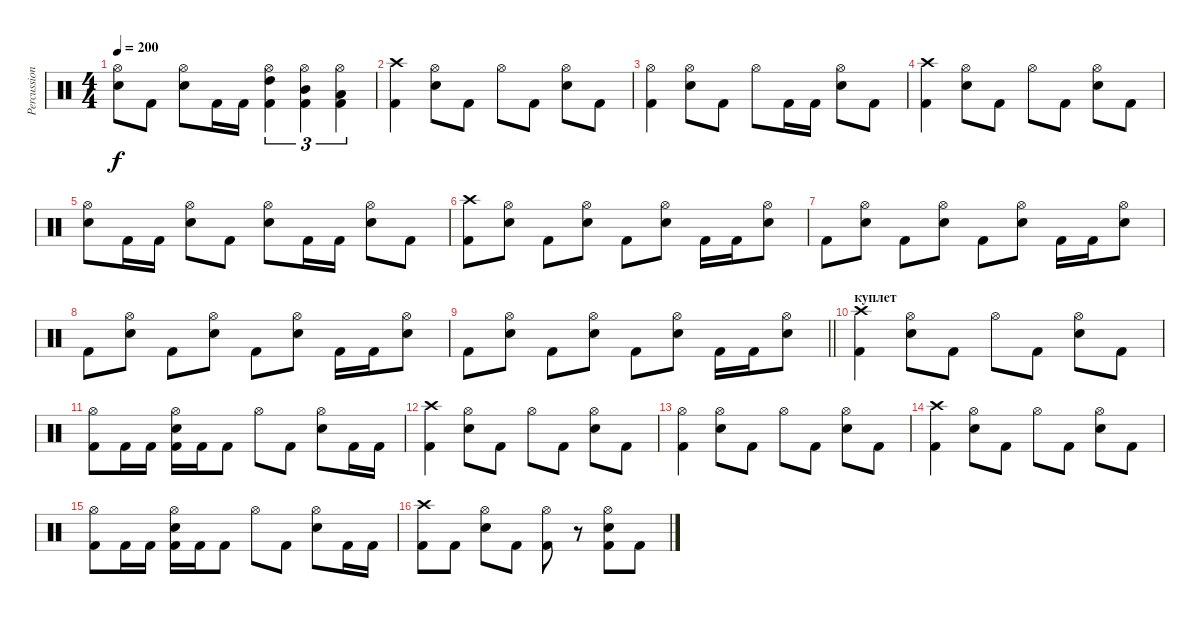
\track ("Percussion" "Percussion") {instrument percussion}
\staff {score}
\articulation defaults
\ts (4 4)
\tempo 200
\clef neutral
\ks c
("Hi-Hat (open)" "Snare (hit) 2").8{dy f} "Kick (hit) 2".8 ("Hi-Hat (open)" "Snare (hit) 2").8 "Kick (hit) 2".16 "Kick (hit) 2".16 ("Hi-Hat (open)" "High Tom (hit)" "Kick (hit) 2").4{tu (3 2)} ("Hi-Hat (open)" "Mid Tom (hit)" "Kick (hit) 2").4{tu (3 2)} ("Hi-Hat (open)" "Low Tom (hit)" "Kick (hit) 2").4{tu (3 2)} |
("Crash high (hit)" "Kick (hit) 2").4 ("Hi-Hat (open)" "Snare (hit) 2").8 "Kick (hit) 2".8 "Hi-Hat (open)".8 "Kick (hit) 2".8 ("Hi-Hat (open)" "Snare (hit) 2").8 "Kick (hit) 2".8 |
("Hi-Hat (open)" "Kick (hit) 2").4 ("Hi-Hat (open)" "Snare (hit) 2").8 "Kick (hit) 2".8 "Hi-Hat (open)".8 "Kick (hit) 2".16 "Kick (hit) 2".16 ("Hi-Hat (open)" "Snare (hit) 2").8 "Kick (hit) 2".8 |
("Crash high (hit)" "Kick (hit) 2").4 ("Hi-Hat (open)" "Snare (hit) 2").8 "Kick (hit) 2".8 "Hi-Hat (open)".8 "Kick (hit) 2".8 ("Hi-Hat (open)" "Snare (hit) 2").8 "Kick (hit) 2".8 |
("Hi-Hat (open)" "Snare (hit) 2").8 "Kick (hit) 2".16 "Kick (hit) 2".16 ("Hi-Hat (open)" "Snare (hit) 2").8 "Kick (hit) 2".8 ("Hi-Hat (open)" "Snare (hit) 2").8 "Kick (hit) 2".16 "Kick (hit) 2".16 ("Hi-Hat (open)" "Snare (hit) 2").8 "Kick (hit) 2".8 |
("Crash high (hit)" "Kick (hit) 2").8 ("Hi-Hat (open)" "Snare (hit) 2").8 "Kick (hit) 2".8 ("Hi-Hat (open)" "Snare (hit) 2").8 "Kick (hit) 2".8 ("Hi-Hat (open)" "Snare (hit) 2").8 "Kick (hit) 2".16 "Kick (hit) 2".16 ("Hi-Hat (open)" "Snare (hit) 2").8 |
"Kick (hit) 2".8 ("Hi-Hat (open)" "Snare (hit) 2").8 "Kick (hit) 2".8 ("Hi-Hat (open)" "Snare (hit) 2").8 "Kick (hit) 2".8 ("Hi-Hat (open)" "Snare (hit) 2").8 "Kick (hit) 2".16 "Kick (hit) 2".16 ("Hi-Hat (open)" "Snare (hit) 2").8 |
"Kick (hit) 2".8 ("Hi-Hat (open)" "Snare (hit) 2").8 "Kick (hit) 2".8 ("Hi-Hat (open)" "Snare (hit) 2").8 "Kick (hit) 2".8 ("Hi-Hat (open)" "Snare (hit) 2").8 "Kick (hit) 2".16 "Kick (hit) 2".16 ("Hi-Hat (open)" "Snare (hit) 2").8 |
\barLineRight lightlight "Kick (hit) 2".8
("Hi-Hat (open)" "Snare (hit) 2").8 "Kick (hit) 2".8 ("Hi-Hat (open)" "Snare (hit) 2").8 "Kick (hit) 2".8 ("Hi-Hat (open)" "Snare (hit) 2").8 "Kick (hit) 2".16 "Kick (hit) 2".16 ("Hi-Hat (open)" "Snare (hit) 2").8 |
\section ("" "куплет")
("Crash high (hit)" "Kick (hit) 2").4 ("Hi-Hat (open)" "Snare (hit) 2").8 "Kick (hit) 2".8 "Hi-Hat (open)".8 "Kick (hit) 2".8 ("Hi-Hat (open)" "Snare (hit) 2").8 "Kick (hit) 2".8 |
("Hi-Hat (open)" "Kick (hit) 2").8 "Kick (hit) 2".16 "Kick (hit) 2".16 ("Hi-Hat (open)" "Snare (hit) 2" "Kick (hit) 2").16 "Kick (hit) 2".16 "Kick (hit) 2".8 "Hi-Hat (open)".8 "Kick (hit) 2".8 ("Hi-Hat (open)" "Snare (hit) 2").8 "Kick (hit) 2".16 "Kick (hit) 2".16 |
("Crash high (hit)" "Kick (hit) 2").4 ("Hi-Hat (open)" "Snare (hit) 2").8 "Kick (hit) 2".8 "Hi-Hat (open)".8 "Kick (hit) 2".8 ("Hi-Hat (open)" "Snare (hit) 2").8 "Kick (hit) 2".8 |
("Hi-Hat (open)" "Kick (hit) 2").4 ("Hi-Hat (open)" "Snare (hit) 2").8 "Kick (hit) 2".8 "Hi-Hat (open)".8 "Kick (hit) 2".8 ("Hi-Hat (open)" "Snare (hit) 2").8 "Kick (hit) 2".8 |
("Crash high (hit)" "Kick (hit) 2").4 ("Hi-Hat (open)" "Snare (hit) 2").8 "Kick (hit) 2".8 "Hi-Hat (open)".8 "Kick (hit) 2".8 ("Hi-Hat (open)" "Snare (hit) 2").8 "Kick (hit) 2".8 |
("Hi-Hat (open)" "Kick (hit) 2").8 "Kick (hit) 2".16 "Kick (hit) 2".16 ("Hi-Hat (open)" "Snare (hit) 2" "Kick (hit) 2").16 "Kick (hit) 2".16 "Kick (hit) 2".8 "Hi-Hat (open)".8 "Kick (hit) 2".8 ("Hi-Hat (open)" "Snare (hit) 2").8 "Kick (hit) 2".16 "Kick (hit) 2".16 |
("Crash high (hit)" "Kick (hit) 2").8 "Kick (hit) 2".8 ("Hi-Hat (open)" "Snare (hit) 2").8 "Kick (hit) 2".8 ("Hi-Hat (open)" "Kick (hit) 2").8 r.8 ("Hi-Hat (open)" "Snare (hit) 2" "Kick (hit) 2").8 "Kick (hit) 2".8
